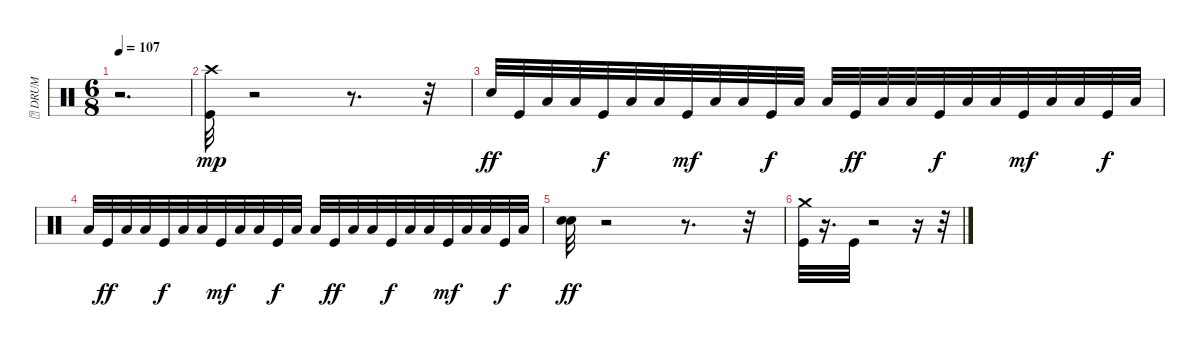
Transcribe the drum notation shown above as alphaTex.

\track ("\t DRUM" "\t DRUM") {instrument percussion}
\staff {score}
\articulation defaults
\ts (6 8)
\tempo 107
\clef neutral
\ks c
r.2{d dy mp} |
("Kick (hit)" "Crash high (hit)").32 r.2 r.8{d} r.32 |
"Electric Snare (hit)".32{dy ff} "Kick (hit)".32 "Low Floor Tom (hit)".32 "Low Tom (hit)".32 "Kick (hit)".32{dy f} "Low Floor Tom (hit)".32 "Low Tom (hit)".32 "Kick (hit)".32{dy mf} "Low Floor Tom (hit)".32 "Low Tom (hit)".32 "Kick (hit)".32{dy f} "Low Floor Tom (hit)".32 "Low Tom (hit)".32 "Kick (hit)".32{dy ff} "Low Floor Tom (hit)".32 "Low Tom (hit)".32 "Kick (hit)".32{dy f} "Low Floor Tom (hit)".32 "Low Tom (hit)".32 "Kick (hit)".32{dy mf} "Low Floor Tom (hit)".32 "Low Tom (hit)".32 "Kick (hit)".32{dy f} "Low Floor Tom (hit)".32 |
"Low Tom (hit)".32 "Kick (hit)".32{dy ff} "Low Floor Tom (hit)".32 "Low Tom (hit)".32 "Kick (hit)".32{dy f} "Low Floor Tom (hit)".32 "Low Tom (hit)".32 "Kick (hit)".32{dy mf} "Low Floor Tom (hit)".32 "Low Tom (hit)".32 "Kick (hit)".32{dy f} "Low Floor Tom (hit)".32 "Low Tom (hit)".32 "Kick (hit)".32{dy ff} "Low Floor Tom (hit)".32 "Low Tom (hit)".32 "Kick (hit)".32{dy f} "Low Floor Tom (hit)".32 "Low Tom (hit)".32 "Kick (hit)".32{dy mf} "Low Floor Tom (hit)".32 "Low Tom (hit)".32 "Kick (hit)".32{dy f} "Low Floor Tom (hit)".32 |
("Electric Snare (hit)" "Electric Snare (hit)").32{dy ff} r.2 r.8{d} r.32 |
("Kick (hit)" "Crash medium (hit)").32 r.16{d} "Kick (hit)".32 r.2 r.16 r.32
